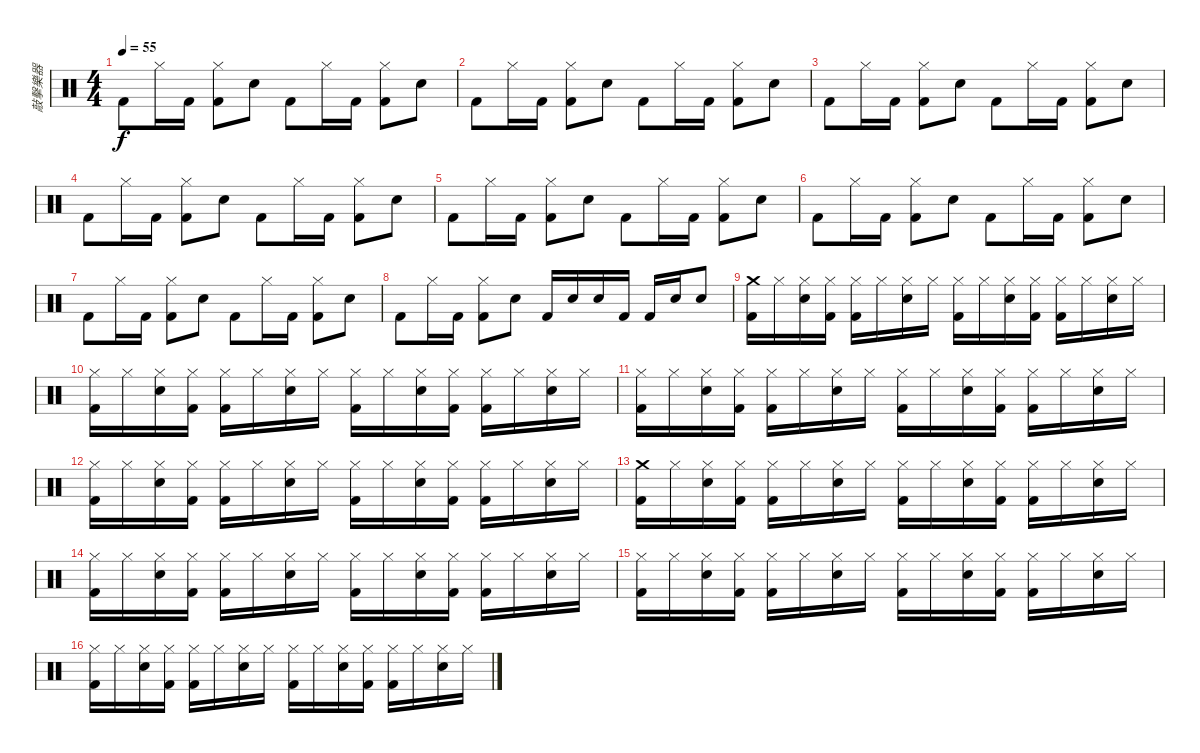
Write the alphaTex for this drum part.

\track ("敲擊樂器" "敲擊樂器") {instrument percussion}
\staff {score}
\articulation defaults
\ts (4 4)
\tempo 55
\clef neutral
\ks c "Kick (hit) 2".8{dy f} "Hi-Hat (closed)".16 "Kick (hit) 2".16
("Hi-Hat (closed)" "Kick (hit) 2").8 "Snare (hit) 2".8 "Kick (hit) 2".8 "Hi-Hat (closed)".16 "Kick (hit) 2".16 ("Hi-Hat (closed)" "Kick (hit) 2").8 "Snare (hit) 2".8 |
"Kick (hit) 2".8 "Hi-Hat (closed)".16 "Kick (hit) 2".16 ("Hi-Hat (closed)" "Kick (hit) 2").8 "Snare (hit) 2".8 "Kick (hit) 2".8 "Hi-Hat (closed)".16 "Kick (hit) 2".16 ("Hi-Hat (closed)" "Kick (hit) 2").8 "Snare (hit) 2".8 |
"Kick (hit) 2".8 "Hi-Hat (closed)".16 "Kick (hit) 2".16 ("Hi-Hat (closed)" "Kick (hit) 2").8 "Snare (hit) 2".8 "Kick (hit) 2".8 "Hi-Hat (closed)".16 "Kick (hit) 2".16 ("Hi-Hat (closed)" "Kick (hit) 2").8 "Snare (hit) 2".8 |
"Kick (hit) 2".8 "Hi-Hat (closed)".16 "Kick (hit) 2".16 ("Hi-Hat (closed)" "Kick (hit) 2").8 "Snare (hit) 2".8 "Kick (hit) 2".8 "Hi-Hat (closed)".16 "Kick (hit) 2".16 ("Hi-Hat (closed)" "Kick (hit) 2").8 "Snare (hit) 2".8 |
"Kick (hit) 2".8 "Hi-Hat (closed)".16 "Kick (hit) 2".16 ("Hi-Hat (closed)" "Kick (hit) 2").8 "Snare (hit) 2".8 "Kick (hit) 2".8 "Hi-Hat (closed)".16 "Kick (hit) 2".16 ("Hi-Hat (closed)" "Kick (hit) 2").8 "Snare (hit) 2".8 |
"Kick (hit) 2".8 "Hi-Hat (closed)".16 "Kick (hit) 2".16 ("Hi-Hat (closed)" "Kick (hit) 2").8 "Snare (hit) 2".8 "Kick (hit) 2".8 "Hi-Hat (closed)".16 "Kick (hit) 2".16 ("Hi-Hat (closed)" "Kick (hit) 2").8 "Snare (hit) 2".8 |
"Kick (hit) 2".8 "Hi-Hat (closed)".16 "Kick (hit) 2".16 ("Hi-Hat (closed)" "Kick (hit) 2").8 "Snare (hit) 2".8 "Kick (hit) 2".8 "Hi-Hat (closed)".16 "Kick (hit) 2".16 ("Hi-Hat (closed)" "Kick (hit) 2").8 "Snare (hit) 2".8 |
"Kick (hit) 2".8 "Hi-Hat (closed)".16 "Kick (hit) 2".16 ("Hi-Hat (closed)" "Kick (hit) 2").8 "Snare (hit) 2".8 "Kick (hit) 2".16 "Snare (hit) 2".16 "Snare (hit) 2".16 "Kick (hit) 2".16 "Kick (hit) 2".16 "Snare (hit) 2".16 "Snare (hit) 2".8 |
("Crash medium (hit)" "Kick (hit) 2").16 "Hi-Hat (closed)".16 ("Hi-Hat (closed)" "Snare (hit) 2").16 ("Hi-Hat (closed)" "Kick (hit) 2").16 ("Hi-Hat (closed)" "Kick (hit) 2").16 "Hi-Hat (closed)".16 ("Hi-Hat (closed)" "Snare (hit) 2").16 "Hi-Hat (closed)".16 ("Hi-Hat (closed)" "Kick (hit) 2").16 "Hi-Hat (closed)".16 ("Hi-Hat (closed)" "Snare (hit) 2").16 ("Hi-Hat (closed)" "Kick (hit) 2").16 ("Hi-Hat (closed)" "Kick (hit) 2").16 "Hi-Hat (closed)".16 ("Hi-Hat (closed)" "Snare (hit) 2").16 "Hi-Hat (closed)".16 |
("Hi-Hat (closed)" "Kick (hit) 2").16 "Hi-Hat (closed)".16 ("Hi-Hat (closed)" "Snare (hit) 2").16 ("Hi-Hat (closed)" "Kick (hit) 2").16 ("Hi-Hat (closed)" "Kick (hit) 2").16 "Hi-Hat (closed)".16 ("Hi-Hat (closed)" "Snare (hit) 2").16 "Hi-Hat (closed)".16 ("Hi-Hat (closed)" "Kick (hit) 2").16 "Hi-Hat (closed)".16 ("Hi-Hat (closed)" "Snare (hit) 2").16 ("Hi-Hat (closed)" "Kick (hit) 2").16 ("Hi-Hat (closed)" "Kick (hit) 2").16 "Hi-Hat (closed)".16 ("Hi-Hat (closed)" "Snare (hit) 2").16 "Hi-Hat (closed)".16 |
("Hi-Hat (closed)" "Kick (hit) 2").16 "Hi-Hat (closed)".16 ("Hi-Hat (closed)" "Snare (hit) 2").16 ("Hi-Hat (closed)" "Kick (hit) 2").16 ("Hi-Hat (closed)" "Kick (hit) 2").16 "Hi-Hat (closed)".16 ("Hi-Hat (closed)" "Snare (hit) 2").16 "Hi-Hat (closed)".16 ("Hi-Hat (closed)" "Kick (hit) 2").16 "Hi-Hat (closed)".16 ("Hi-Hat (closed)" "Snare (hit) 2").16 ("Hi-Hat (closed)" "Kick (hit) 2").16 ("Hi-Hat (closed)" "Kick (hit) 2").16 "Hi-Hat (closed)".16 ("Hi-Hat (closed)" "Snare (hit) 2").16 "Hi-Hat (closed)".16 |
("Hi-Hat (closed)" "Kick (hit) 2").16 "Hi-Hat (closed)".16 ("Hi-Hat (closed)" "Snare (hit) 2").16 ("Hi-Hat (closed)" "Kick (hit) 2").16 ("Hi-Hat (closed)" "Kick (hit) 2").16 "Hi-Hat (closed)".16 ("Hi-Hat (closed)" "Snare (hit) 2").16 "Hi-Hat (closed)".16 ("Hi-Hat (closed)" "Kick (hit) 2").16 "Hi-Hat (closed)".16 ("Hi-Hat (closed)" "Snare (hit) 2").16 ("Hi-Hat (closed)" "Kick (hit) 2").16 ("Hi-Hat (closed)" "Kick (hit) 2").16 "Hi-Hat (closed)".16 ("Hi-Hat (closed)" "Snare (hit) 2").16 "Hi-Hat (closed)".16 |
("Crash medium (hit)" "Kick (hit) 2").16 "Hi-Hat (closed)".16 ("Hi-Hat (closed)" "Snare (hit) 2").16 ("Hi-Hat (closed)" "Kick (hit) 2").16 ("Hi-Hat (closed)" "Kick (hit) 2").16 "Hi-Hat (closed)".16 ("Hi-Hat (closed)" "Snare (hit) 2").16 "Hi-Hat (closed)".16 ("Hi-Hat (closed)" "Kick (hit) 2").16 "Hi-Hat (closed)".16 ("Hi-Hat (closed)" "Snare (hit) 2").16 ("Hi-Hat (closed)" "Kick (hit) 2").16 ("Hi-Hat (closed)" "Kick (hit) 2").16 "Hi-Hat (closed)".16 ("Hi-Hat (closed)" "Snare (hit) 2").16 "Hi-Hat (closed)".16 |
("Hi-Hat (closed)" "Kick (hit) 2").16 "Hi-Hat (closed)".16 ("Hi-Hat (closed)" "Snare (hit) 2").16 ("Hi-Hat (closed)" "Kick (hit) 2").16 ("Hi-Hat (closed)" "Kick (hit) 2").16 "Hi-Hat (closed)".16 ("Hi-Hat (closed)" "Snare (hit) 2").16 "Hi-Hat (closed)".16 ("Hi-Hat (closed)" "Kick (hit) 2").16 "Hi-Hat (closed)".16 ("Hi-Hat (closed)" "Snare (hit) 2").16 ("Hi-Hat (closed)" "Kick (hit) 2").16 ("Hi-Hat (closed)" "Kick (hit) 2").16 "Hi-Hat (closed)".16 ("Hi-Hat (closed)" "Snare (hit) 2").16 "Hi-Hat (closed)".16 |
("Hi-Hat (closed)" "Kick (hit) 2").16 "Hi-Hat (closed)".16 ("Hi-Hat (closed)" "Snare (hit) 2").16 ("Hi-Hat (closed)" "Kick (hit) 2").16 ("Hi-Hat (closed)" "Kick (hit) 2").16 "Hi-Hat (closed)".16 ("Hi-Hat (closed)" "Snare (hit) 2").16 "Hi-Hat (closed)".16 ("Hi-Hat (closed)" "Kick (hit) 2").16 "Hi-Hat (closed)".16 ("Hi-Hat (closed)" "Snare (hit) 2").16 ("Hi-Hat (closed)" "Kick (hit) 2").16 ("Hi-Hat (closed)" "Kick (hit) 2").16 "Hi-Hat (closed)".16 ("Hi-Hat (closed)" "Snare (hit) 2").16 "Hi-Hat (closed)".16 |
("Hi-Hat (closed)" "Kick (hit) 2").16 "Hi-Hat (closed)".16 ("Hi-Hat (closed)" "Snare (hit) 2").16 ("Hi-Hat (closed)" "Kick (hit) 2").16 ("Hi-Hat (closed)" "Kick (hit) 2").16 "Hi-Hat (closed)".16 ("Hi-Hat (closed)" "Snare (hit) 2").16 "Hi-Hat (closed)".16 ("Hi-Hat (closed)" "Kick (hit) 2").16 "Hi-Hat (closed)".16 ("Hi-Hat (closed)" "Snare (hit) 2").16 ("Hi-Hat (closed)" "Kick (hit) 2").16 ("Hi-Hat (closed)" "Kick (hit) 2").16 "Hi-Hat (closed)".16 ("Hi-Hat (closed)" "Snare (hit) 2").16 "Hi-Hat (closed)".16
